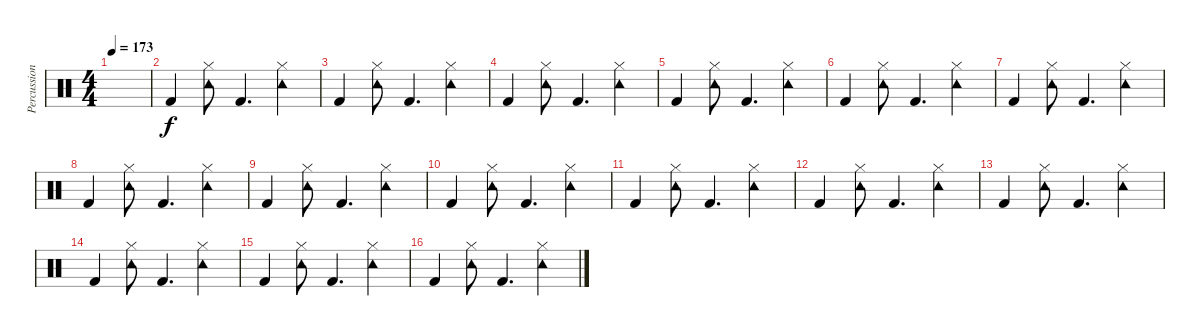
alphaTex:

\track ("Percussion" "Percussion") {instrument percussion}
\staff {score}
\articulation defaults
\ts (4 4)
\tempo 173
\clef neutral
\ks c
|
"Kick (hit) 2".4 ("Tambourine (hit)" "Hi-Hat (closed)").8 "Kick (hit) 2".4{d} ("Tambourine (hit)" "Hi-Hat (closed)").4 |
"Kick (hit) 2".4 ("Tambourine (hit)" "Hi-Hat (closed)").8 "Kick (hit) 2".4{d} ("Tambourine (hit)" "Hi-Hat (closed)").4 |
"Kick (hit) 2".4 ("Tambourine (hit)" "Hi-Hat (closed)").8 "Kick (hit) 2".4{d} ("Tambourine (hit)" "Hi-Hat (closed)").4 |
"Kick (hit) 2".4 ("Tambourine (hit)" "Hi-Hat (closed)").8 "Kick (hit) 2".4{d} ("Tambourine (hit)" "Hi-Hat (closed)").4 |
"Kick (hit) 2".4 ("Tambourine (hit)" "Hi-Hat (closed)").8 "Kick (hit) 2".4{d} ("Tambourine (hit)" "Hi-Hat (closed)").4 |
"Kick (hit) 2".4 ("Tambourine (hit)" "Hi-Hat (closed)").8 "Kick (hit) 2".4{d} ("Tambourine (hit)" "Hi-Hat (closed)").4 |
"Kick (hit) 2".4 ("Tambourine (hit)" "Hi-Hat (closed)").8 "Kick (hit) 2".4{d} ("Tambourine (hit)" "Hi-Hat (closed)").4 |
"Kick (hit) 2".4 ("Tambourine (hit)" "Hi-Hat (closed)").8 "Kick (hit) 2".4{d} ("Tambourine (hit)" "Hi-Hat (closed)").4 |
"Kick (hit) 2".4 ("Tambourine (hit)" "Hi-Hat (closed)").8 "Kick (hit) 2".4{d} ("Tambourine (hit)" "Hi-Hat (closed)").4 |
"Kick (hit) 2".4 ("Tambourine (hit)" "Hi-Hat (closed)").8 "Kick (hit) 2".4{d} ("Tambourine (hit)" "Hi-Hat (closed)").4 |
"Kick (hit) 2".4 ("Tambourine (hit)" "Hi-Hat (closed)").8 "Kick (hit) 2".4{d} ("Tambourine (hit)" "Hi-Hat (closed)").4 |
"Kick (hit) 2".4 ("Tambourine (hit)" "Hi-Hat (closed)").8 "Kick (hit) 2".4{d} ("Tambourine (hit)" "Hi-Hat (closed)").4 |
"Kick (hit) 2".4 ("Tambourine (hit)" "Hi-Hat (closed)").8 "Kick (hit) 2".4{d} ("Tambourine (hit)" "Hi-Hat (closed)").4 |
"Kick (hit) 2".4 ("Tambourine (hit)" "Hi-Hat (closed)").8 "Kick (hit) 2".4{d} ("Tambourine (hit)" "Hi-Hat (closed)").4 |
"Kick (hit) 2".4 ("Tambourine (hit)" "Hi-Hat (closed)").8 "Kick (hit) 2".4{d} ("Tambourine (hit)" "Hi-Hat (closed)").4
